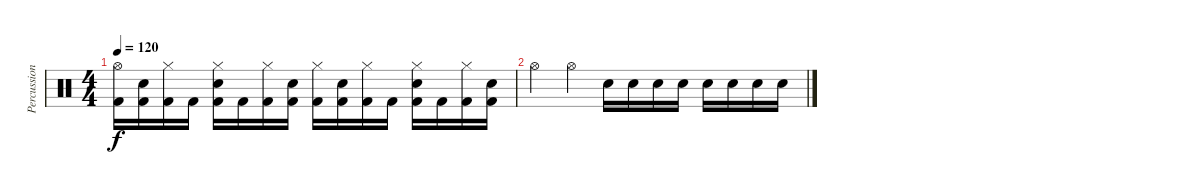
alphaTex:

\track ("Percussions" "Percussion") {instrument percussion}
\staff {score}
\articulation defaults
\ts (4 4)
\tempo 120
\clef neutral
\ks c
("Hi-Hat (open)" "Kick (hit) 2").16{dy f} ("Electric Snare (hit)" "Kick (hit) 2").16 ("Hi-Hat (closed)" "Kick (hit) 2").16 "Kick (hit) 2".16 ("Electric Snare (hit)" "Hi-Hat (closed)" "Kick (hit) 2").16 "Kick (hit) 2".16 ("Hi-Hat (closed)" "Kick (hit) 2").16 ("Electric Snare (hit)" "Kick (hit) 2").16 ("Hi-Hat (closed)" "Kick (hit) 2").16 ("Electric Snare (hit)" "Kick (hit) 2").16 ("Hi-Hat (closed)" "Kick (hit) 2").16 "Kick (hit) 2".16 ("Electric Snare (hit)" "Hi-Hat (closed)" "Kick (hit) 2").16 "Kick (hit) 2".16 ("Hi-Hat (closed)" "Kick (hit) 2").16 ("Electric Snare (hit)" "Kick (hit) 2").16 |
"Hi-Hat (open)".4 "Hi-Hat (open)".4 "Electric Snare (hit)".16 "Electric Snare (hit)".16 "Electric Snare (hit)".16 "Electric Snare (hit)".16 "Electric Snare (hit)".16 "Electric Snare (hit)".16 "Electric Snare (hit)".16 "Electric Snare (hit)".16
